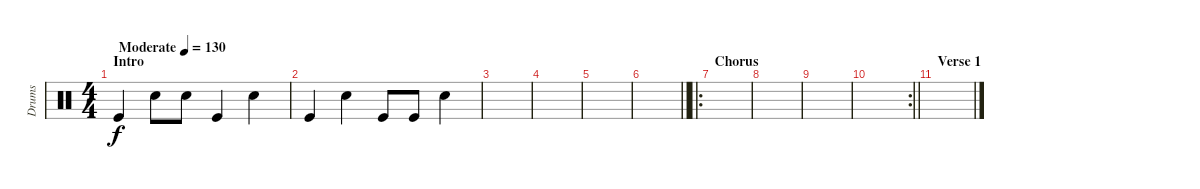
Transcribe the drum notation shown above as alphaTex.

\track ("Drums" "Drums") {instrument percussion}
\staff {score}
\articulation defaults
\ts (4 4)
\section ("" "Intro")
\tempo (130 "Moderate")
\clef neutral
\ks c "Kick (hit)".4{dy f} "Snare (hit) 2".8 "Snare (hit) 2".8 "Kick (hit)".4 "Snare (hit) 2".4
|
"Kick (hit)".4 "Snare (hit) 2".4 "Kick (hit)".8 "Kick (hit)".8 "Snare (hit) 2".4 |
|
|
|
\barLineRight lightlight
|
\ro
\section ("" "Chorus")
|
|
|
\rc 2
\barLineRight lightlight
|
\section ("" "Verse 1")
